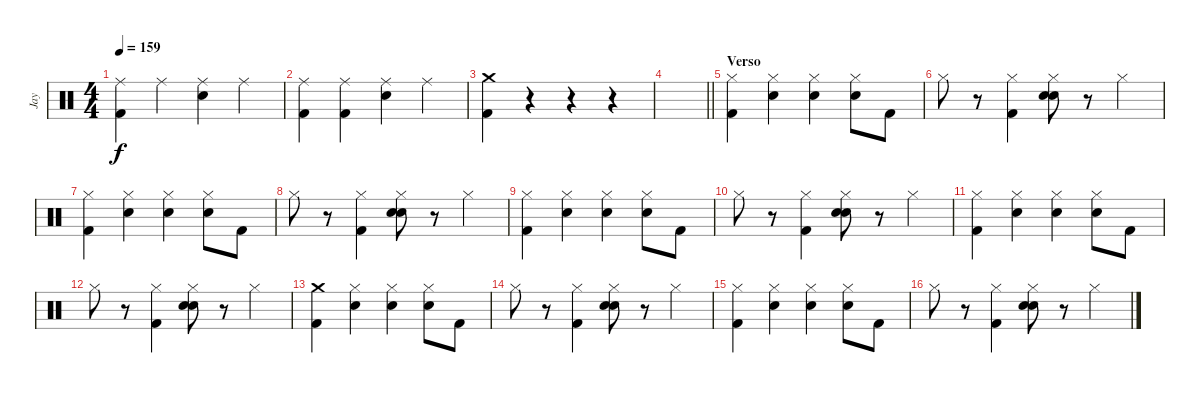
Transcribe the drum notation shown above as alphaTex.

\track ("Jay" "Jay") {instrument percussion}
\staff {score}
\articulation defaults
\ts (4 4)
\tempo 159
\clef neutral
\ks c
("Ride (middle)" "Kick (hit) 2").4{dy f} "Ride (middle)".4 ("Ride (middle)" "Electric Snare (hit)").4 "Ride (middle)".4 |
("Ride (middle)" "Kick (hit) 2").4 ("Ride (middle)" "Kick (hit) 2").4 ("Ride (middle)" "Electric Snare (hit)").4 "Ride (middle)".4 |
("Kick (hit) 2" "Crash medium (hit)").4 r.4 r.4 r.4 |
\barLineRight lightlight
|
\section ("" "Verso")
("Hi-Hat (closed)" "Kick (hit) 2").4 ("Snare (hit)" "Hi-Hat (closed)").4 ("Hi-Hat (closed)" "Electric Snare (hit)").4 ("Snare (hit)" "Hi-Hat (closed)").8 "Kick (hit) 2".8 |
"Hi-Hat (closed)".8 r.8 ("Hi-Hat (closed)" "Kick (hit) 2").4 ("Snare (hit)" "Hi-Hat (closed)" "Electric Snare (hit)").8 r.8 "Hi-Hat (closed)".4 |
("Hi-Hat (closed)" "Kick (hit) 2").4 ("Snare (hit)" "Hi-Hat (closed)").4 ("Hi-Hat (closed)" "Electric Snare (hit)").4 ("Snare (hit)" "Hi-Hat (closed)").8 "Kick (hit) 2".8 |
"Hi-Hat (closed)".8 r.8 ("Hi-Hat (closed)" "Kick (hit) 2").4 ("Snare (hit)" "Hi-Hat (closed)" "Electric Snare (hit)").8 r.8 "Hi-Hat (closed)".4 |
("Hi-Hat (closed)" "Kick (hit) 2").4 ("Snare (hit)" "Hi-Hat (closed)").4 ("Hi-Hat (closed)" "Electric Snare (hit)").4 ("Snare (hit)" "Hi-Hat (closed)").8 "Kick (hit) 2".8 |
"Hi-Hat (closed)".8 r.8 ("Hi-Hat (closed)" "Kick (hit) 2").4 ("Snare (hit)" "Hi-Hat (closed)" "Electric Snare (hit)").8 r.8 "Hi-Hat (closed)".4 |
("Hi-Hat (closed)" "Kick (hit) 2").4 ("Snare (hit)" "Hi-Hat (closed)").4 ("Hi-Hat (closed)" "Electric Snare (hit)").4 ("Snare (hit)" "Hi-Hat (closed)").8 "Kick (hit) 2".8 |
"Hi-Hat (closed)".8 r.8 ("Hi-Hat (closed)" "Kick (hit) 2").4 ("Snare (hit)" "Hi-Hat (closed)" "Electric Snare (hit)").8 r.8 "Hi-Hat (closed)".4 |
("Crash medium (hit)" "Kick (hit) 2").4 ("Snare (hit)" "Hi-Hat (closed)").4 ("Hi-Hat (closed)" "Electric Snare (hit)").4 ("Snare (hit)" "Hi-Hat (closed)").8 "Kick (hit) 2".8 |
"Hi-Hat (closed)".8 r.8 ("Hi-Hat (closed)" "Kick (hit) 2").4 ("Snare (hit)" "Hi-Hat (closed)" "Electric Snare (hit)").8 r.8 "Hi-Hat (closed)".4 |
("Hi-Hat (closed)" "Kick (hit) 2").4 ("Snare (hit)" "Hi-Hat (closed)").4 ("Hi-Hat (closed)" "Electric Snare (hit)").4 ("Snare (hit)" "Hi-Hat (closed)").8 "Kick (hit) 2".8 |
"Hi-Hat (closed)".8 r.8 ("Hi-Hat (closed)" "Kick (hit) 2").4 ("Snare (hit)" "Hi-Hat (closed)" "Electric Snare (hit)").8 r.8 "Hi-Hat (closed)".4
